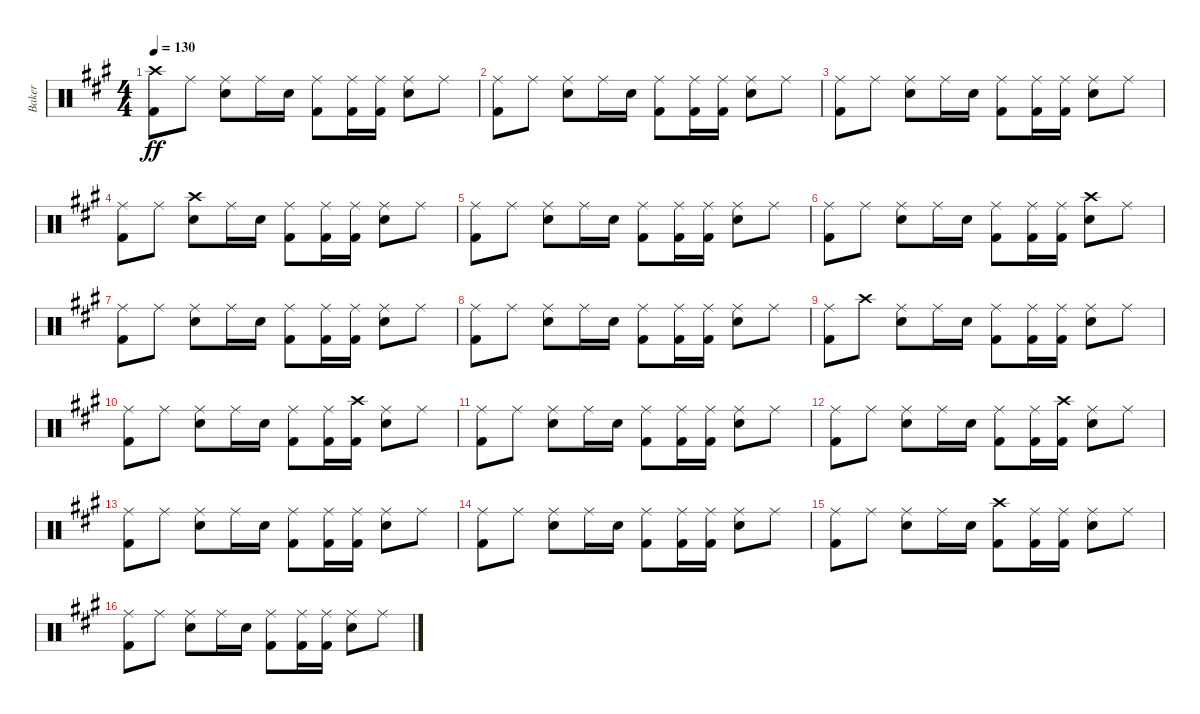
\track ("Baker" "Baker") {instrument percussion}
\staff {score}
\articulation defaults
\ts (4 4)
\tempo 130
\clef neutral
\ks a
("Crash high (hit)" "Kick (hit) 2").8{dy ff} "Ride (middle)".8 ("Ride (middle)" "Snare (hit) 2").8 "Ride (middle)".16 "Snare (hit) 2".16 ("Ride (middle)" "Kick (hit) 2").8 ("Ride (middle)" "Kick (hit) 2").16 ("Ride (middle)" "Kick (hit) 2").16 ("Ride (middle)" "Snare (hit) 2").8 "Ride (middle)".8 |
("Ride (middle)" "Kick (hit) 2").8 "Ride (middle)".8 ("Ride (middle)" "Snare (hit) 2").8 "Ride (middle)".16 "Snare (hit) 2".16 ("Ride (middle)" "Kick (hit) 2").8 ("Ride (middle)" "Kick (hit) 2").16 ("Ride (middle)" "Kick (hit) 2").16 ("Ride (middle)" "Snare (hit) 2").8 "Ride (middle)".8 |
("Ride (middle)" "Kick (hit) 2").8 "Ride (middle)".8 ("Ride (middle)" "Snare (hit) 2").8 "Ride (middle)".16 "Snare (hit) 2".16 ("Ride (middle)" "Kick (hit) 2").8 ("Ride (middle)" "Kick (hit) 2").16 ("Ride (middle)" "Kick (hit) 2").16 ("Ride (middle)" "Snare (hit) 2").8 "Ride (middle)".8 |
("Ride (middle)" "Kick (hit) 2").8 "Ride (middle)".8 ("Crash high (hit)" "Snare (hit) 2").8 "Ride (middle)".16 "Snare (hit) 2".16 ("Ride (middle)" "Kick (hit) 2").8 ("Ride (middle)" "Kick (hit) 2").16 ("Ride (middle)" "Kick (hit) 2").16 ("Ride (middle)" "Snare (hit) 2").8 "Ride (middle)".8 |
("Ride (middle)" "Kick (hit) 2").8 "Ride (middle)".8 ("Ride (middle)" "Snare (hit) 2").8 "Ride (middle)".16 "Snare (hit) 2".16 ("Ride (middle)" "Kick (hit) 2").8 ("Ride (middle)" "Kick (hit) 2").16 ("Ride (middle)" "Kick (hit) 2").16 ("Ride (middle)" "Snare (hit) 2").8 "Ride (middle)".8 |
("Ride (middle)" "Kick (hit) 2").8 "Ride (middle)".8 ("Ride (middle)" "Snare (hit) 2").8 "Ride (middle)".16 "Snare (hit) 2".16 ("Ride (middle)" "Kick (hit) 2").8 ("Ride (middle)" "Kick (hit) 2").16 ("Ride (middle)" "Kick (hit) 2").16 ("Crash high (hit)" "Snare (hit) 2").8 "Ride (middle)".8 |
("Ride (middle)" "Kick (hit) 2").8 "Ride (middle)".8 ("Ride (middle)" "Snare (hit) 2").8 "Ride (middle)".16 "Snare (hit) 2".16 ("Ride (middle)" "Kick (hit) 2").8 ("Ride (middle)" "Kick (hit) 2").16 ("Ride (middle)" "Kick (hit) 2").16 ("Ride (middle)" "Snare (hit) 2").8 "Ride (middle)".8 |
("Ride (middle)" "Kick (hit) 2").8 "Ride (middle)".8 ("Ride (middle)" "Snare (hit) 2").8 "Ride (middle)".16 "Snare (hit) 2".16 ("Ride (middle)" "Kick (hit) 2").8 ("Ride (middle)" "Kick (hit) 2").16 ("Ride (middle)" "Kick (hit) 2").16 ("Ride (middle)" "Snare (hit) 2").8 "Ride (middle)".8 |
("Ride (middle)" "Kick (hit) 2").8 "Crash high (hit)".8 ("Ride (middle)" "Snare (hit) 2").8 "Ride (middle)".16 "Snare (hit) 2".16 ("Ride (middle)" "Kick (hit) 2").8 ("Ride (middle)" "Kick (hit) 2").16 ("Ride (middle)" "Kick (hit) 2").16 ("Ride (middle)" "Snare (hit) 2").8 "Ride (middle)".8 |
("Ride (middle)" "Kick (hit) 2").8 "Ride (middle)".8 ("Ride (middle)" "Snare (hit) 2").8 "Ride (middle)".16 "Snare (hit) 2".16 ("Ride (middle)" "Kick (hit) 2").8 ("Ride (middle)" "Kick (hit) 2").16 ("Crash high (hit)" "Kick (hit) 2").16 ("Ride (middle)" "Snare (hit) 2").8 "Ride (middle)".8 |
("Ride (middle)" "Kick (hit) 2").8 "Ride (middle)".8 ("Ride (middle)" "Snare (hit) 2").8 "Ride (middle)".16 "Snare (hit) 2".16 ("Ride (middle)" "Kick (hit) 2").8 ("Ride (middle)" "Kick (hit) 2").16 ("Ride (middle)" "Kick (hit) 2").16 ("Ride (middle)" "Snare (hit) 2").8 "Ride (middle)".8 |
("Ride (middle)" "Kick (hit) 2").8 "Ride (middle)".8 ("Ride (middle)" "Snare (hit) 2").8 "Ride (middle)".16 "Snare (hit) 2".16 ("Ride (middle)" "Kick (hit) 2").8 ("Ride (middle)" "Kick (hit) 2").16 ("Crash high (hit)" "Kick (hit) 2").16 ("Ride (middle)" "Snare (hit) 2").8 "Ride (middle)".8 |
("Ride (middle)" "Kick (hit) 2").8 "Ride (middle)".8 ("Ride (middle)" "Snare (hit) 2").8 "Ride (middle)".16 "Snare (hit) 2".16 ("Ride (middle)" "Kick (hit) 2").8 ("Ride (middle)" "Kick (hit) 2").16 ("Ride (middle)" "Kick (hit) 2").16 ("Ride (middle)" "Snare (hit) 2").8 "Ride (middle)".8 |
("Ride (middle)" "Kick (hit) 2").8 "Ride (middle)".8 ("Ride (middle)" "Snare (hit) 2").8 "Ride (middle)".16 "Snare (hit) 2".16 ("Ride (middle)" "Kick (hit) 2").8 ("Ride (middle)" "Kick (hit) 2").16 ("Ride (middle)" "Kick (hit) 2").16 ("Ride (middle)" "Snare (hit) 2").8 "Ride (middle)".8 |
("Ride (middle)" "Kick (hit) 2").8 "Ride (middle)".8 ("Ride (middle)" "Snare (hit) 2").8 "Ride (middle)".16 "Snare (hit) 2".16 ("Crash high (hit)" "Kick (hit) 2").8 ("Ride (middle)" "Kick (hit) 2").16 ("Ride (middle)" "Kick (hit) 2").16 ("Ride (middle)" "Snare (hit) 2").8 "Ride (middle)".8 |
("Ride (middle)" "Kick (hit) 2").8 "Ride (middle)".8 ("Ride (middle)" "Snare (hit) 2").8 "Ride (middle)".16 "Snare (hit) 2".16 ("Ride (middle)" "Kick (hit) 2").8 ("Ride (middle)" "Kick (hit) 2").16 ("Ride (middle)" "Kick (hit) 2").16 ("Ride (middle)" "Snare (hit) 2").8 "Ride (middle)".8
